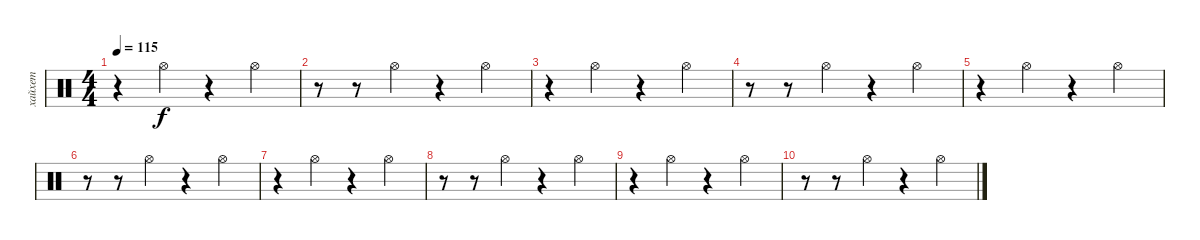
\track ("хайхет" "хайхет") {mute instrument percussion}
\staff {score}
\articulation defaults
\ts (4 4)
\tempo 115
\clef neutral
\ks c
r.4{dy f} "Hi-Hat (open)".4 r.4 "Hi-Hat (open)".4 |
r.8 r.8 "Hi-Hat (open)".4 r.4 "Hi-Hat (open)".4 |
r.4 "Hi-Hat (open)".4 r.4 "Hi-Hat (open)".4 |
r.8 r.8 "Hi-Hat (open)".4 r.4 "Hi-Hat (open)".4 |
r.4 "Hi-Hat (open)".4 r.4 "Hi-Hat (open)".4 |
r.8 r.8 "Hi-Hat (open)".4 r.4 "Hi-Hat (open)".4 |
r.4 "Hi-Hat (open)".4 r.4 "Hi-Hat (open)".4 |
r.8 r.8 "Hi-Hat (open)".4 r.4 "Hi-Hat (open)".4 |
r.4 "Hi-Hat (open)".4 r.4 "Hi-Hat (open)".4 |
r.8 r.8 "Hi-Hat (open)".4 r.4 "Hi-Hat (open)".4
